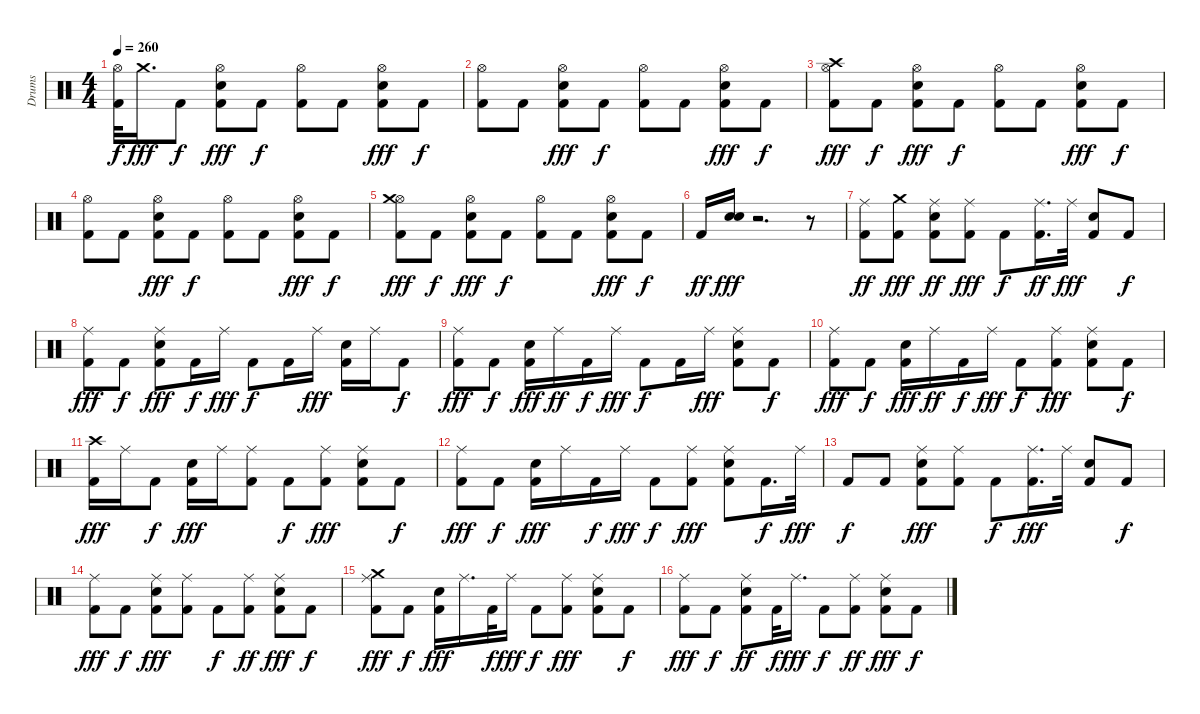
\track ("Drums" "Drums") {instrument percussion}
\staff {score}
\articulation defaults
\ts (4 4)
\tempo 260
\clef neutral
\ks c
("Hi-Hat (open)" "Kick (hit) 2").32{dy f} "Crash medium (hit)".16{d dy fff} "Kick (hit) 2".8{dy f} ("Hi-Hat (open)" "Snare (hit) 2" "Kick (hit) 2").8{dy fff} "Kick (hit) 2".8{dy f} ("Hi-Hat (open)" "Kick (hit) 2").8 "Kick (hit) 2".8 ("Hi-Hat (open)" "Snare (hit) 2" "Kick (hit) 2").8{dy fff} "Kick (hit) 2".8{dy f} |
("Hi-Hat (open)" "Kick (hit) 2").8 "Kick (hit) 2".8 ("Hi-Hat (open)" "Snare (hit) 2" "Kick (hit) 2").8{dy fff} "Kick (hit) 2".8{dy f} ("Hi-Hat (open)" "Kick (hit) 2").8 "Kick (hit) 2".8 ("Hi-Hat (open)" "Snare (hit) 2" "Kick (hit) 2").8{dy fff} "Kick (hit) 2".8{dy f} |
("Hi-Hat (open)" "Kick (hit) 2" "Crash high (hit)").8{dy fff} "Kick (hit) 2".8{dy f} ("Hi-Hat (open)" "Snare (hit) 2" "Kick (hit) 2").8{dy fff} "Kick (hit) 2".8{dy f} ("Hi-Hat (open)" "Kick (hit) 2").8 "Kick (hit) 2".8 ("Hi-Hat (open)" "Snare (hit) 2" "Kick (hit) 2").8{dy fff} "Kick (hit) 2".8{dy f} |
("Hi-Hat (open)" "Kick (hit) 2").8 "Kick (hit) 2".8 ("Hi-Hat (open)" "Snare (hit) 2" "Kick (hit) 2").8{dy fff} "Kick (hit) 2".8{dy f} ("Hi-Hat (open)" "Kick (hit) 2").8 "Kick (hit) 2".8 ("Hi-Hat (open)" "Snare (hit) 2" "Kick (hit) 2").8{dy fff} "Kick (hit) 2".8{dy f} |
("Hi-Hat (open)" "Kick (hit) 2" "Crash medium (hit)").8{dy fff} "Kick (hit) 2".8{dy f} ("Hi-Hat (open)" "Snare (hit) 2" "Kick (hit) 2").8{dy fff} "Kick (hit) 2".8{dy f} ("Hi-Hat (open)" "Kick (hit) 2").8 "Kick (hit) 2".8 ("Hi-Hat (open)" "Snare (hit) 2" "Kick (hit) 2").8{dy fff} "Kick (hit) 2".8{dy f} |
"Kick (hit) 2".16{dy ff} ("Snare (hit) 2" "Electric Snare (hit)").16{dy fff} r.2{d} r.8 |
("Kick (hit) 2" "Ride (middle)").8{dy ff} ("Kick (hit) 2" "Crash medium (hit)").8{dy fff} ("Snare (hit) 2" "Kick (hit) 2" "Ride (middle)").8{dy ff} ("Ride (middle)" "Kick (hit) 2").8{dy fff} "Kick (hit) 2".8{dy f} ("Ride (middle)" "Kick (hit) 2").16{d dy ff} "Ride (middle)".32{dy fff} ("Snare (hit) 2" "Kick (hit) 2").8 "Kick (hit) 2".8{dy f} |
("Ride (middle)" "Kick (hit) 2").8{dy fff} "Kick (hit) 2".8{dy f} ("Snare (hit) 2" "Kick (hit) 2" "Ride (middle)").8{dy fff} "Kick (hit) 2".16{dy f} "Ride (middle)".16{dy fff} "Kick (hit) 2".8{dy f} "Kick (hit) 2".16 "Ride (middle)".16{dy fff} ("Snare (hit) 2" "Kick (hit) 2").16 "Ride (middle)".16 "Kick (hit) 2".8{dy f} |
("Kick (hit) 2" "Ride (middle)").8{dy fff} "Kick (hit) 2".8{dy f} ("Snare (hit) 2" "Kick (hit) 2").16{dy fff} "Ride (middle)".16{dy ff} "Kick (hit) 2".16{dy f} "Ride (middle)".16{dy fff} "Kick (hit) 2".8{dy f} "Kick (hit) 2".16 "Ride (middle)".16{dy fff} ("Ride (middle)" "Snare (hit) 2" "Kick (hit) 2").8 "Kick (hit) 2".8{dy f} |
("Ride (middle)" "Kick (hit) 2").8{dy fff} "Kick (hit) 2".8{dy f} ("Snare (hit) 2" "Kick (hit) 2").16{dy fff} "Ride (middle)".16{dy ff} "Kick (hit) 2".16{dy f} "Ride (middle)".16{dy fff} "Kick (hit) 2".8{dy f} ("Ride (middle)" "Kick (hit) 2").8{dy fff} ("Snare (hit) 2" "Kick (hit) 2" "Ride (middle)").8 "Kick (hit) 2".8{dy f} |
("Kick (hit) 2" "Crash high (hit)").16{dy fff} "Ride (middle)".16 "Kick (hit) 2".8{dy f} ("Snare (hit) 2" "Kick (hit) 2").16{dy fff} "Ride (middle)".16 ("Kick (hit) 2" "Ride (middle)").8 "Kick (hit) 2".8{dy f} ("Kick (hit) 2" "Ride (middle)").8{dy fff} ("Ride (middle)" "Snare (hit) 2" "Kick (hit) 2").8 "Kick (hit) 2".8{dy f} |
("Ride (middle)" "Kick (hit) 2").8{dy fff} "Kick (hit) 2".8{dy f} ("Snare (hit) 2" "Kick (hit) 2").16{dy fff} "Ride (middle)".16 "Kick (hit) 2".16{dy f} "Ride (middle)".16{dy fff} "Kick (hit) 2".8{dy f} ("Kick (hit) 2" "Ride (middle)").8{dy fff} ("Ride (middle)" "Snare (hit) 2" "Kick (hit) 2").8 "Kick (hit) 2".16{d dy f} "Ride (middle)".32{dy fff} |
"Kick (hit) 2".8{dy f} "Kick (hit) 2".8 ("Ride (middle)" "Snare (hit) 2" "Kick (hit) 2").8{dy fff} ("Ride (middle)" "Kick (hit) 2").8 "Kick (hit) 2".8{dy f} ("Kick (hit) 2" "Ride (middle)").16{d dy fff} "Ride (middle)".32 ("Snare (hit) 2" "Kick (hit) 2").8 "Kick (hit) 2".8{dy f} |
("Ride (middle)" "Kick (hit) 2").8{dy fff} "Kick (hit) 2".8{dy f} ("Snare (hit) 2" "Kick (hit) 2" "Ride (middle)").8{dy fff} ("Kick (hit) 2" "Ride (middle)").8 "Kick (hit) 2".8{dy f} ("Ride (middle)" "Kick (hit) 2").8{dy ff} ("Ride (middle)" "Snare (hit) 2" "Kick (hit) 2").8{dy fff} "Kick (hit) 2".8{dy f} |
("Crash medium (hit)" "Kick (hit) 2" "Ride (middle)").8{dy fff} "Kick (hit) 2".8{dy f} ("Snare (hit) 2" "Kick (hit) 2").16{dy fff} "Ride (middle)".16{d} "Kick (hit) 2".32{dy f} "Ride (middle)".16{dy fff} "Kick (hit) 2".8{dy f} ("Kick (hit) 2" "Ride (middle)").8{dy fff} ("Snare (hit) 2" "Kick (hit) 2" "Ride (middle)").8 "Kick (hit) 2".8{dy f} |
("Ride (middle)" "Kick (hit) 2").8{dy fff} "Kick (hit) 2".8{dy f} ("Snare (hit) 2" "Kick (hit) 2" "Ride (middle)").8{dy ff} "Kick (hit) 2".32{dy f} "Ride (middle)".16{d dy fff} "Kick (hit) 2".8{dy f} ("Kick (hit) 2" "Ride (middle)").8{dy ff} ("Snare (hit) 2" "Kick (hit) 2" "Ride (middle)").8{dy fff} "Kick (hit) 2".8{dy f}
